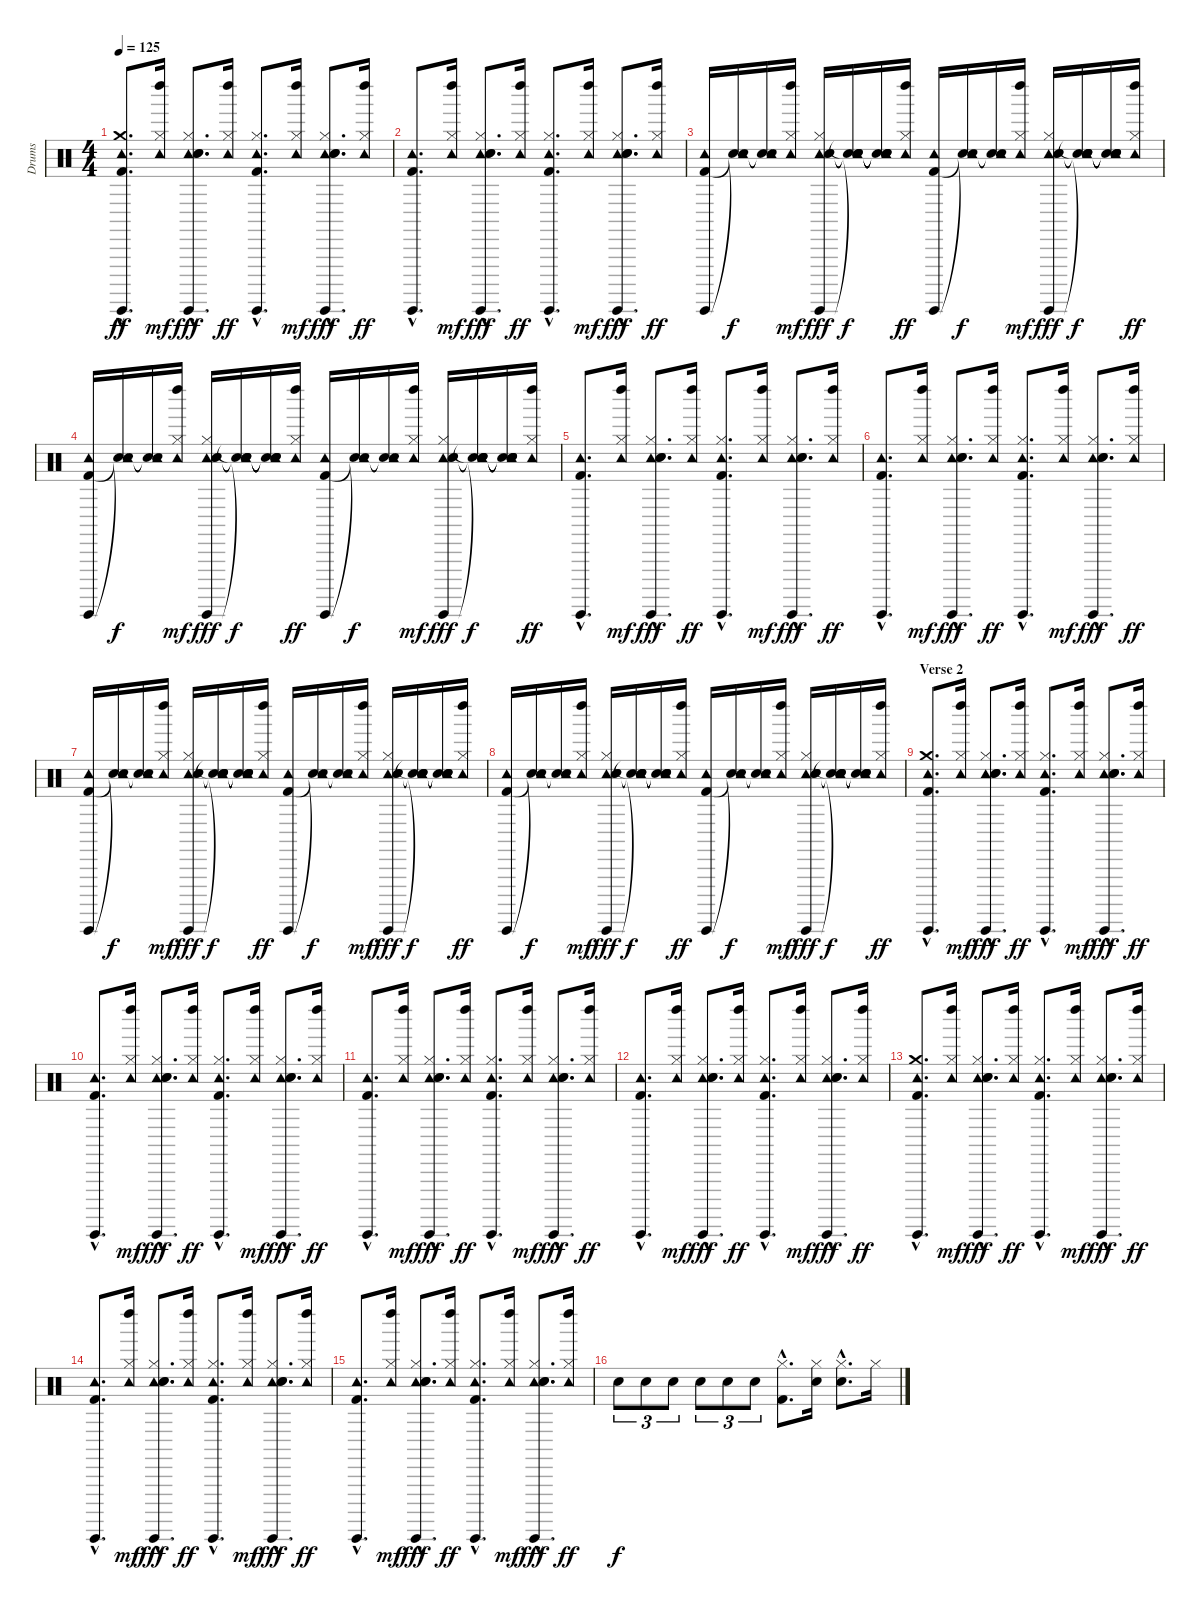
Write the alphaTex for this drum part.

\track ("Drums" "Drums") {instrument percussion}
\staff {score}
\articulation defaults
\ts (4 4)
\tempo 125
\clef neutral
\ks c
("Guiro (hit)"{hac} "Tambourine (hit)"{hac} "Crash medium (hit)"{hac} "Kick (hit) 2"{hac}).8{d dy ff} ("Left Maraca (hit)" "Tambourine (hit)" "Hi-Hat (closed)").16{dy mf} ("Guiro (hit)"{hac} "Tambourine (hit)"{hac} "Hi-Hat (closed)"{hac} "Hand Clap (hit)"{hac} "Snare (hit) 2"{hac}).8{d dy fff} ("Left Maraca (hit)" "Tambourine (hit)" "Hi-Hat (closed)").16{dy ff} ("Guiro (hit)"{hac} "Tambourine (hit)"{hac} "Hi-Hat (closed)"{hac} "Kick (hit) 2"{hac}).8{d} ("Left Maraca (hit)" "Tambourine (hit)" "Hi-Hat (closed)").16{dy mf} ("Guiro (hit)"{hac} "Tambourine (hit)"{hac} "Hi-Hat (closed)"{hac} "Hand Clap (hit)"{hac} "Snare (hit) 2"{hac}).8{d dy fff} ("Left Maraca (hit)" "Tambourine (hit)" "Hi-Hat (closed)").16{dy ff} |
("Guiro (hit)"{hac} "Tambourine (hit)"{hac} "Kick (hit) 2"{hac}).8{d} ("Left Maraca (hit)" "Tambourine (hit)" "Hi-Hat (closed)").16{dy mf} ("Guiro (hit)"{hac} "Tambourine (hit)"{hac} "Hi-Hat (closed)"{hac} "Hand Clap (hit)"{hac} "Snare (hit) 2"{hac}).8{d dy fff} ("Left Maraca (hit)" "Tambourine (hit)" "Hi-Hat (closed)").16{dy ff} ("Guiro (hit)"{hac} "Tambourine (hit)"{hac} "Hi-Hat (closed)"{hac} "Kick (hit) 2"{hac}).8{d} ("Left Maraca (hit)" "Tambourine (hit)" "Hi-Hat (closed)").16{dy mf} ("Guiro (hit)"{hac} "Tambourine (hit)"{hac} "Hi-Hat (closed)"{hac} "Hand Clap (hit)"{hac} "Snare (hit) 2"{hac}).8{d dy fff} ("Left Maraca (hit)" "Tambourine (hit)" "Hi-Hat (closed)").16{dy ff} |
("Guiro (hit)" "Tambourine (hit)" "Kick (hit) 2").16 ("Snare (hit)"{t} "Tambourine (hit)" "Snare (hit)"{t}).16{dy f} ("Snare (hit)"{t} "Tambourine (hit)" "Snare (hit)"{t}).16 ("Left Maraca (hit)" "Tambourine (hit)" "Hi-Hat (closed)").16{dy mf} ("Guiro (hit)" "Tambourine (hit)" "Hi-Hat (closed)" "Hand Clap (hit)" "Snare (hit) 2").16{dy fff} ("Snare (hit)"{t} "Tambourine (hit)" "Snare (hit)"{t} "Snare (hit)"{t} "Snare (hit)"{t}).16{dy f} ("Snare (hit)"{t} "Tambourine (hit)" "Snare (hit)"{t} "Snare (hit)"{t} "Snare (hit)"{t}).16 ("Left Maraca (hit)" "Tambourine (hit)" "Hi-Hat (closed)").16{dy ff} ("Guiro (hit)" "Tambourine (hit)" "Kick (hit) 2").16 ("Snare (hit)"{t} "Tambourine (hit)" "Snare (hit)"{t}).16{dy f} ("Snare (hit)"{t} "Tambourine (hit)" "Snare (hit)"{t}).16 ("Left Maraca (hit)" "Tambourine (hit)" "Hi-Hat (closed)").16{dy mf} ("Guiro (hit)" "Tambourine (hit)" "Hi-Hat (closed)" "Hand Clap (hit)" "Snare (hit) 2").16{dy fff} ("Snare (hit)"{t} "Tambourine (hit)" "Snare (hit)"{t} "Snare (hit)"{t} "Snare (hit)"{t}).16{dy f} ("Snare (hit)"{t} "Tambourine (hit)" "Snare (hit)"{t} "Snare (hit)"{t} "Snare (hit)"{t}).16 ("Left Maraca (hit)" "Tambourine (hit)" "Hi-Hat (closed)").16{dy ff} |
("Guiro (hit)" "Tambourine (hit)" "Kick (hit) 2").16 ("Snare (hit)"{t} "Tambourine (hit)" "Snare (hit)"{t}).16{dy f} ("Snare (hit)"{t} "Tambourine (hit)" "Snare (hit)"{t}).16 ("Left Maraca (hit)" "Tambourine (hit)" "Hi-Hat (closed)").16{dy mf} ("Guiro (hit)" "Tambourine (hit)" "Hi-Hat (closed)" "Hand Clap (hit)" "Snare (hit) 2").16{dy fff} ("Snare (hit)"{t} "Tambourine (hit)" "Snare (hit)"{t} "Snare (hit)"{t} "Snare (hit)"{t}).16{dy f} ("Snare (hit)"{t} "Tambourine (hit)" "Snare (hit)"{t} "Snare (hit)"{t} "Snare (hit)"{t}).16 ("Left Maraca (hit)" "Tambourine (hit)" "Hi-Hat (closed)").16{dy ff} ("Guiro (hit)" "Tambourine (hit)" "Kick (hit) 2").16 ("Snare (hit)"{t} "Tambourine (hit)" "Snare (hit)"{t}).16{dy f} ("Snare (hit)"{t} "Tambourine (hit)" "Snare (hit)"{t}).16 ("Left Maraca (hit)" "Tambourine (hit)" "Hi-Hat (closed)").16{dy mf} ("Guiro (hit)" "Tambourine (hit)" "Hi-Hat (closed)" "Hand Clap (hit)" "Snare (hit) 2").16{dy fff} ("Snare (hit)"{t} "Tambourine (hit)" "Snare (hit)"{t} "Snare (hit)"{t} "Snare (hit)"{t}).16{dy f} ("Snare (hit)"{t} "Tambourine (hit)" "Snare (hit)"{t} "Snare (hit)"{t} "Snare (hit)"{t}).16 ("Left Maraca (hit)" "Tambourine (hit)" "Hi-Hat (closed)").16{dy ff} |
("Guiro (hit)"{hac} "Tambourine (hit)"{hac} "Kick (hit) 2"{hac}).8{d} ("Left Maraca (hit)" "Tambourine (hit)" "Hi-Hat (closed)").16{dy mf} ("Guiro (hit)"{hac} "Tambourine (hit)"{hac} "Hi-Hat (closed)"{hac} "Hand Clap (hit)"{hac} "Snare (hit) 2"{hac}).8{d dy fff} ("Left Maraca (hit)" "Tambourine (hit)" "Hi-Hat (closed)").16{dy ff} ("Guiro (hit)"{hac} "Tambourine (hit)"{hac} "Hi-Hat (closed)"{hac} "Kick (hit) 2"{hac}).8{d} ("Left Maraca (hit)" "Tambourine (hit)" "Hi-Hat (closed)").16{dy mf} ("Guiro (hit)"{hac} "Tambourine (hit)"{hac} "Hi-Hat (closed)"{hac} "Hand Clap (hit)"{hac} "Snare (hit) 2"{hac}).8{d dy fff} ("Left Maraca (hit)" "Tambourine (hit)" "Hi-Hat (closed)").16{dy ff} |
("Guiro (hit)"{hac} "Tambourine (hit)"{hac} "Kick (hit) 2"{hac}).8{d} ("Left Maraca (hit)" "Tambourine (hit)" "Hi-Hat (closed)").16{dy mf} ("Guiro (hit)"{hac} "Tambourine (hit)"{hac} "Hi-Hat (closed)"{hac} "Hand Clap (hit)"{hac} "Snare (hit) 2"{hac}).8{d dy fff} ("Left Maraca (hit)" "Tambourine (hit)" "Hi-Hat (closed)").16{dy ff} ("Guiro (hit)"{hac} "Tambourine (hit)"{hac} "Hi-Hat (closed)"{hac} "Kick (hit) 2"{hac}).8{d} ("Left Maraca (hit)" "Tambourine (hit)" "Hi-Hat (closed)").16{dy mf} ("Guiro (hit)"{hac} "Tambourine (hit)"{hac} "Hi-Hat (closed)"{hac} "Hand Clap (hit)"{hac} "Snare (hit) 2"{hac}).8{d dy fff} ("Left Maraca (hit)" "Tambourine (hit)" "Hi-Hat (closed)").16{dy ff} |
("Guiro (hit)" "Tambourine (hit)" "Kick (hit) 2").16 ("Snare (hit)"{t} "Tambourine (hit)" "Snare (hit)"{t}).16{dy f} ("Snare (hit)"{t} "Tambourine (hit)" "Snare (hit)"{t}).16 ("Left Maraca (hit)" "Tambourine (hit)" "Hi-Hat (closed)").16{dy mf} ("Guiro (hit)" "Tambourine (hit)" "Hi-Hat (closed)" "Hand Clap (hit)" "Snare (hit) 2").16{dy fff} ("Snare (hit)"{t} "Tambourine (hit)" "Snare (hit)"{t} "Snare (hit)"{t} "Snare (hit)"{t}).16{dy f} ("Snare (hit)"{t} "Tambourine (hit)" "Snare (hit)"{t} "Snare (hit)"{t} "Snare (hit)"{t}).16 ("Left Maraca (hit)" "Tambourine (hit)" "Hi-Hat (closed)").16{dy ff} ("Guiro (hit)" "Tambourine (hit)" "Kick (hit) 2").16 ("Snare (hit)"{t} "Tambourine (hit)" "Snare (hit)"{t}).16{dy f} ("Snare (hit)"{t} "Tambourine (hit)" "Snare (hit)"{t}).16 ("Left Maraca (hit)" "Tambourine (hit)" "Hi-Hat (closed)").16{dy mf} ("Guiro (hit)" "Tambourine (hit)" "Hi-Hat (closed)" "Hand Clap (hit)" "Snare (hit) 2").16{dy fff} ("Snare (hit)"{t} "Tambourine (hit)" "Snare (hit)"{t} "Snare (hit)"{t} "Snare (hit)"{t}).16{dy f} ("Snare (hit)"{t} "Tambourine (hit)" "Snare (hit)"{t} "Snare (hit)"{t} "Snare (hit)"{t}).16 ("Left Maraca (hit)" "Tambourine (hit)" "Hi-Hat (closed)").16{dy ff} |
("Guiro (hit)" "Tambourine (hit)" "Kick (hit) 2").16 ("Snare (hit)"{t} "Tambourine (hit)" "Snare (hit)"{t}).16{dy f} ("Snare (hit)"{t} "Tambourine (hit)" "Snare (hit)"{t}).16 ("Left Maraca (hit)" "Tambourine (hit)" "Hi-Hat (closed)").16{dy mf} ("Guiro (hit)" "Tambourine (hit)" "Hi-Hat (closed)" "Hand Clap (hit)" "Snare (hit) 2").16{dy fff} ("Snare (hit)"{t} "Tambourine (hit)" "Snare (hit)"{t} "Snare (hit)"{t} "Snare (hit)"{t}).16{dy f} ("Snare (hit)"{t} "Tambourine (hit)" "Snare (hit)"{t} "Snare (hit)"{t} "Snare (hit)"{t}).16 ("Left Maraca (hit)" "Tambourine (hit)" "Hi-Hat (closed)").16{dy ff} ("Guiro (hit)" "Tambourine (hit)" "Kick (hit) 2").16 ("Snare (hit)"{t} "Tambourine (hit)" "Snare (hit)"{t}).16{dy f} ("Snare (hit)"{t} "Tambourine (hit)" "Snare (hit)"{t}).16 ("Left Maraca (hit)" "Tambourine (hit)" "Hi-Hat (closed)").16{dy mf} ("Guiro (hit)" "Tambourine (hit)" "Hi-Hat (closed)" "Hand Clap (hit)" "Snare (hit) 2").16{dy fff} ("Snare (hit)"{t} "Tambourine (hit)" "Snare (hit)"{t} "Snare (hit)"{t} "Snare (hit)"{t}).16{dy f} ("Snare (hit)"{t} "Tambourine (hit)" "Snare (hit)"{t} "Snare (hit)"{t} "Snare (hit)"{t}).16 ("Left Maraca (hit)" "Tambourine (hit)" "Hi-Hat (closed)").16{dy ff} |
\section ("" "Verse 2")
("Guiro (hit)"{hac} "Tambourine (hit)"{hac} "Crash medium (hit)"{hac} "Kick (hit) 2"{hac}).8{d} ("Left Maraca (hit)" "Tambourine (hit)" "Hi-Hat (closed)").16{dy mf} ("Guiro (hit)"{hac} "Tambourine (hit)"{hac} "Hi-Hat (closed)"{hac} "Hand Clap (hit)"{hac} "Snare (hit) 2"{hac}).8{d dy fff} ("Left Maraca (hit)" "Tambourine (hit)" "Hi-Hat (closed)").16{dy ff} ("Guiro (hit)"{hac} "Tambourine (hit)"{hac} "Hi-Hat (closed)"{hac} "Kick (hit) 2"{hac}).8{d} ("Left Maraca (hit)" "Tambourine (hit)" "Hi-Hat (closed)").16{dy mf} ("Guiro (hit)"{hac} "Tambourine (hit)"{hac} "Hi-Hat (closed)"{hac} "Hand Clap (hit)"{hac} "Snare (hit) 2"{hac}).8{d dy fff} ("Left Maraca (hit)" "Tambourine (hit)" "Hi-Hat (closed)").16{dy ff} |
("Guiro (hit)"{hac} "Tambourine (hit)"{hac} "Kick (hit) 2"{hac}).8{d} ("Left Maraca (hit)" "Tambourine (hit)" "Hi-Hat (closed)").16{dy mf} ("Guiro (hit)"{hac} "Tambourine (hit)"{hac} "Hi-Hat (closed)"{hac} "Hand Clap (hit)"{hac} "Snare (hit) 2"{hac}).8{d dy fff} ("Left Maraca (hit)" "Tambourine (hit)" "Hi-Hat (closed)").16{dy ff} ("Guiro (hit)"{hac} "Tambourine (hit)"{hac} "Hi-Hat (closed)"{hac} "Kick (hit) 2"{hac}).8{d} ("Left Maraca (hit)" "Tambourine (hit)" "Hi-Hat (closed)").16{dy mf} ("Guiro (hit)"{hac} "Tambourine (hit)"{hac} "Hi-Hat (closed)"{hac} "Hand Clap (hit)"{hac} "Snare (hit) 2"{hac}).8{d dy fff} ("Left Maraca (hit)" "Tambourine (hit)" "Hi-Hat (closed)").16{dy ff} |
("Guiro (hit)"{hac} "Tambourine (hit)"{hac} "Kick (hit) 2"{hac}).8{d} ("Left Maraca (hit)" "Tambourine (hit)" "Hi-Hat (closed)").16{dy mf} ("Guiro (hit)"{hac} "Tambourine (hit)"{hac} "Hi-Hat (closed)"{hac} "Hand Clap (hit)"{hac} "Snare (hit) 2"{hac}).8{d dy fff} ("Left Maraca (hit)" "Tambourine (hit)" "Hi-Hat (closed)").16{dy ff} ("Guiro (hit)"{hac} "Tambourine (hit)"{hac} "Hi-Hat (closed)"{hac} "Kick (hit) 2"{hac}).8{d} ("Left Maraca (hit)" "Tambourine (hit)" "Hi-Hat (closed)").16{dy mf} ("Guiro (hit)"{hac} "Tambourine (hit)"{hac} "Hi-Hat (closed)"{hac} "Hand Clap (hit)"{hac} "Snare (hit) 2"{hac}).8{d dy fff} ("Left Maraca (hit)" "Tambourine (hit)" "Hi-Hat (closed)").16{dy ff} |
("Guiro (hit)"{hac} "Tambourine (hit)"{hac} "Kick (hit) 2"{hac}).8{d} ("Left Maraca (hit)" "Tambourine (hit)" "Hi-Hat (closed)").16{dy mf} ("Guiro (hit)"{hac} "Tambourine (hit)"{hac} "Hi-Hat (closed)"{hac} "Hand Clap (hit)"{hac} "Snare (hit) 2"{hac}).8{d dy fff} ("Left Maraca (hit)" "Tambourine (hit)" "Hi-Hat (closed)").16{dy ff} ("Guiro (hit)"{hac} "Tambourine (hit)"{hac} "Hi-Hat (closed)"{hac} "Kick (hit) 2"{hac}).8{d} ("Left Maraca (hit)" "Tambourine (hit)" "Hi-Hat (closed)").16{dy mf} ("Guiro (hit)"{hac} "Tambourine (hit)"{hac} "Hi-Hat (closed)"{hac} "Hand Clap (hit)"{hac} "Snare (hit) 2"{hac}).8{d dy fff} ("Left Maraca (hit)" "Tambourine (hit)" "Hi-Hat (closed)").16{dy ff} |
("Guiro (hit)"{hac} "Tambourine (hit)"{hac} "Crash medium (hit)"{hac} "Kick (hit) 2"{hac}).8{d} ("Left Maraca (hit)" "Tambourine (hit)" "Hi-Hat (closed)").16{dy mf} ("Guiro (hit)"{hac} "Tambourine (hit)"{hac} "Hi-Hat (closed)"{hac} "Hand Clap (hit)"{hac} "Snare (hit) 2"{hac}).8{d dy fff} ("Left Maraca (hit)" "Tambourine (hit)" "Hi-Hat (closed)").16{dy ff} ("Guiro (hit)"{hac} "Tambourine (hit)"{hac} "Hi-Hat (closed)"{hac} "Kick (hit) 2"{hac}).8{d} ("Left Maraca (hit)" "Tambourine (hit)" "Hi-Hat (closed)").16{dy mf} ("Guiro (hit)"{hac} "Tambourine (hit)"{hac} "Hi-Hat (closed)"{hac} "Hand Clap (hit)"{hac} "Snare (hit) 2"{hac}).8{d dy fff} ("Left Maraca (hit)" "Tambourine (hit)" "Hi-Hat (closed)").16{dy ff} |
("Guiro (hit)"{hac} "Tambourine (hit)"{hac} "Kick (hit) 2"{hac}).8{d} ("Left Maraca (hit)" "Tambourine (hit)" "Hi-Hat (closed)").16{dy mf} ("Guiro (hit)"{hac} "Tambourine (hit)"{hac} "Hi-Hat (closed)"{hac} "Hand Clap (hit)"{hac} "Snare (hit) 2"{hac}).8{d dy fff} ("Left Maraca (hit)" "Tambourine (hit)" "Hi-Hat (closed)").16{dy ff} ("Guiro (hit)"{hac} "Tambourine (hit)"{hac} "Hi-Hat (closed)"{hac} "Kick (hit) 2"{hac}).8{d} ("Left Maraca (hit)" "Tambourine (hit)" "Hi-Hat (closed)").16{dy mf} ("Guiro (hit)"{hac} "Tambourine (hit)"{hac} "Hi-Hat (closed)"{hac} "Hand Clap (hit)"{hac} "Snare (hit) 2"{hac}).8{d dy fff} ("Left Maraca (hit)" "Tambourine (hit)" "Hi-Hat (closed)").16{dy ff} |
("Guiro (hit)"{hac} "Tambourine (hit)"{hac} "Kick (hit) 2"{hac}).8{d} ("Left Maraca (hit)" "Tambourine (hit)" "Hi-Hat (closed)").16{dy mf} ("Guiro (hit)"{hac} "Tambourine (hit)"{hac} "Hi-Hat (closed)"{hac} "Hand Clap (hit)"{hac} "Snare (hit) 2"{hac}).8{d dy fff} ("Left Maraca (hit)" "Tambourine (hit)" "Hi-Hat (closed)").16{dy ff} ("Guiro (hit)"{hac} "Tambourine (hit)"{hac} "Hi-Hat (closed)"{hac} "Kick (hit) 2"{hac}).8{d} ("Left Maraca (hit)" "Tambourine (hit)" "Hi-Hat (closed)").16{dy mf} ("Guiro (hit)"{hac} "Tambourine (hit)"{hac} "Hi-Hat (closed)"{hac} "Hand Clap (hit)"{hac} "Snare (hit) 2"{hac}).8{d dy fff} ("Left Maraca (hit)" "Tambourine (hit)" "Hi-Hat (closed)").16{dy ff} |
"Snare (hit) 2".8{tu (3 2) dy f} "Snare (hit) 2".8{tu (3 2)} "Snare (hit) 2".8{tu (3 2)} "Snare (hit) 2".8{tu (3 2)} "Snare (hit) 2".8{tu (3 2)} "Snare (hit) 2".8{tu (3 2)} ("Hi-Hat (closed)"{hac} "Kick (hit) 2"{hac}).8{d} ("Hi-Hat (closed)" "Snare (hit) 2").16 ("Hi-Hat (closed)"{hac} "Snare (hit) 2"{hac}).8{d} "Hi-Hat (closed)".16
